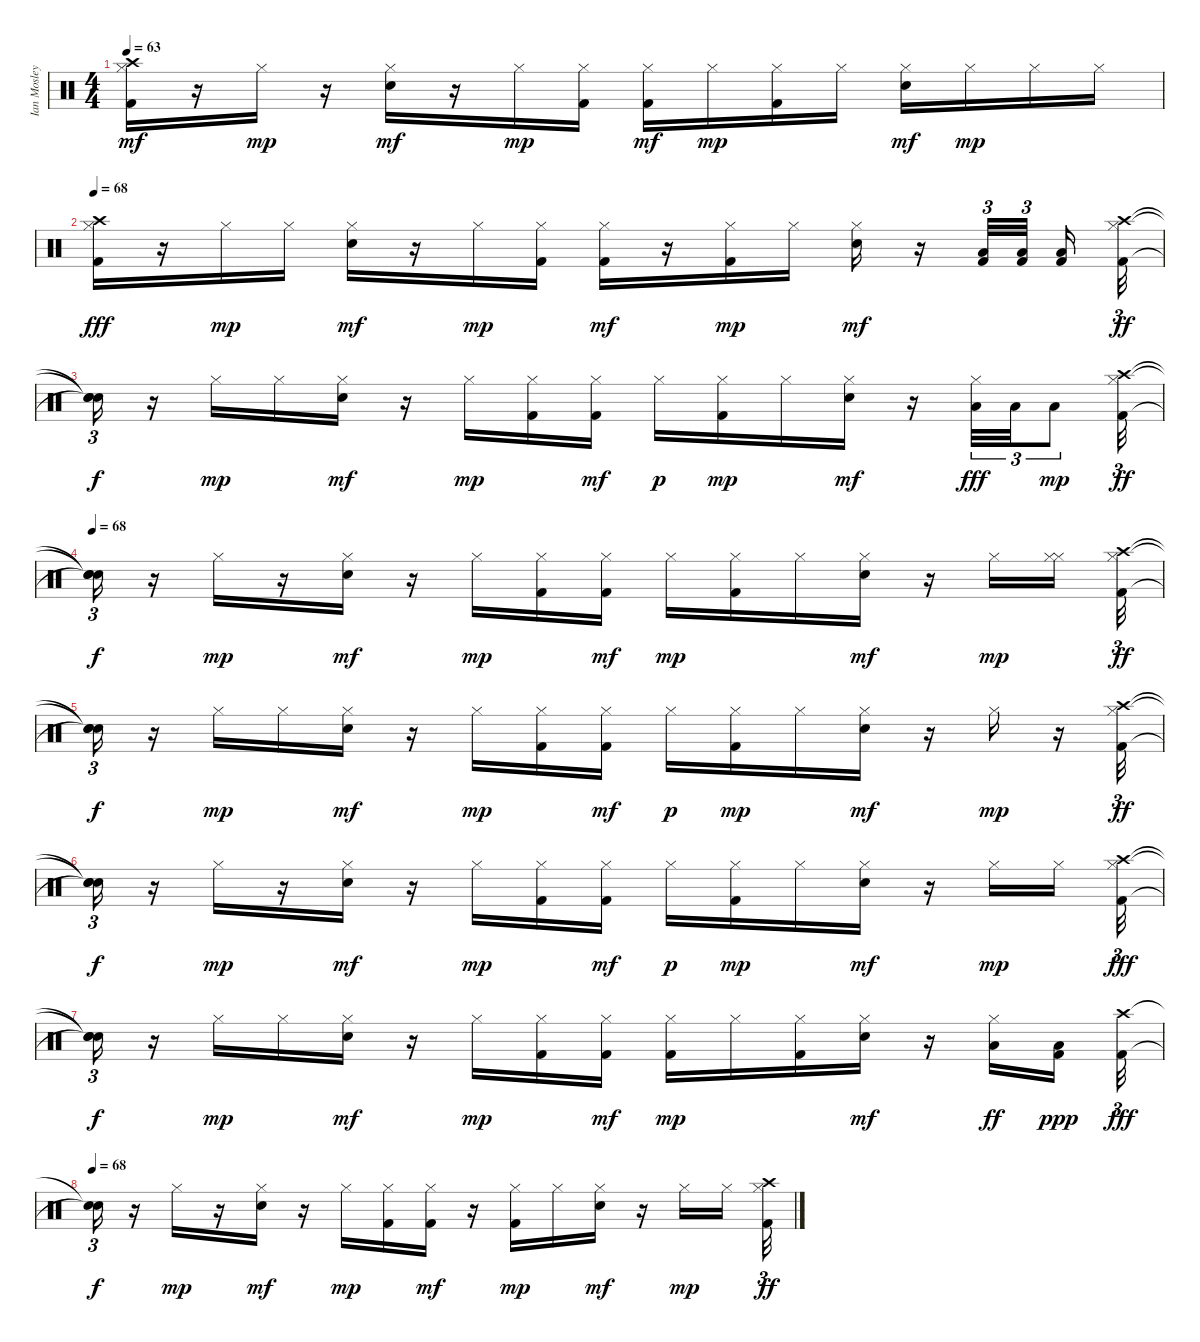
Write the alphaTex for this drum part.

\track ("Ian Mosley" "Ian Mosley") {instrument percussion}
\staff {score}
\articulation defaults
\ts (4 4)
\tempo 63
\clef neutral
\ks c
("Kick (hit) 2" "Hi-Hat (closed)" "Crash high (hit)").16{dy mf} r.16 "Hi-Hat (closed)".16{dy mp} r.16 ("Snare (hit) 2" "Hi-Hat (closed)").16{dy mf} r.16 "Hi-Hat (closed)".16{dy mp} ("Kick (hit) 2" "Hi-Hat (closed)").16 ("Kick (hit) 2" "Hi-Hat (closed)").16{dy mf} "Hi-Hat (closed)".16{dy mp} ("Kick (hit) 2" "Hi-Hat (closed)").16 "Hi-Hat (closed)".16 ("Snare (hit) 2" "Hi-Hat (closed)").16{dy mf} "Hi-Hat (closed)".16{dy mp} "Hi-Hat (closed)".16 "Hi-Hat (closed)".16 |
\tempo 68
("Kick (hit) 2" "Hi-Hat (closed)" "Crash high (hit)").16{dy fff} r.16 "Hi-Hat (closed)".16{dy mp} "Hi-Hat (closed)".16 ("Snare (hit) 2" "Hi-Hat (closed)").16{dy mf} r.16 "Hi-Hat (closed)".16{dy mp} ("Kick (hit) 2" "Hi-Hat (closed)").16 ("Kick (hit) 2" "Hi-Hat (closed)").16{dy mf} r.16 ("Kick (hit) 2" "Hi-Hat (closed)").16{dy mp} "Hi-Hat (closed)".16 ("Snare (hit) 2" "Hi-Hat (closed)").16{dy mf} r.16 ("Kick (hit) 2" "Low Tom (hit)").32{tu (3 2)} ("Kick (hit) 2" "Low Floor Tom (hit)").32{tu (3 2) beam splitsecondary} ("Kick (hit) 2" "Low Floor Tom (hit)").16 ("Kick (hit) 2" "Hi-Hat (closed)" "Crash high (hit)").32{tu (3 2) dy ff} |
("Snare (hit)"{t} "Snare (hit)"{t} "Snare (hit)"{t}).16{tu (3 2) dy f} r.16 "Hi-Hat (closed)".16{dy mp} "Hi-Hat (closed)".16 ("Snare (hit) 2" "Hi-Hat (closed)").16{dy mf} r.16 "Hi-Hat (closed)".16{dy mp} ("Kick (hit) 2" "Hi-Hat (closed)").16 ("Kick (hit) 2" "Hi-Hat (closed)").16{dy mf} "Hi-Hat (closed)".16{dy p} ("Kick (hit) 2" "Hi-Hat (closed)").16{dy mp} "Hi-Hat (closed)".16 ("Snare (hit) 2" "Hi-Hat (closed)").16{dy mf} r.16 ("Hi-Hat (closed)" "Low Tom (hit)").32{tu (3 2) dy fff} "Low Floor Tom (hit)".32{tu (3 2)} "Low Floor Tom (hit)".8{tu (3 2) dy mp} ("Kick (hit) 2" "Hi-Hat (closed)" "Crash high (hit)").32{tu (3 2) dy ff} |
\tempo 68
("Snare (hit)"{t} "Snare (hit)"{t} "Snare (hit)"{t}).16{tu (3 2) dy f} r.16 "Hi-Hat (closed)".16{dy mp} r.16 ("Snare (hit) 2" "Hi-Hat (closed)").16{dy mf} r.16 "Hi-Hat (closed)".16{dy mp} ("Kick (hit) 2" "Hi-Hat (closed)").16 ("Kick (hit) 2" "Hi-Hat (closed)").16{dy mf} "Hi-Hat (closed)".16{dy mp} ("Kick (hit) 2" "Hi-Hat (closed)").16 "Hi-Hat (closed)".16 ("Snare (hit) 2" "Hi-Hat (closed)").16{dy mf} r.16 "Hi-Hat (closed)".16{dy mp} ("Hi-Hat (closed)" "Hi-Hat (closed)").16{beam splitsecondary} ("Kick (hit) 2" "Hi-Hat (closed)" "Crash high (hit)").32{tu (3 2) dy ff} |
("Snare (hit)"{t} "Snare (hit)"{t} "Snare (hit)"{t}).16{tu (3 2) dy f} r.16 "Hi-Hat (closed)".16{dy mp} "Hi-Hat (closed)".16 ("Snare (hit) 2" "Hi-Hat (closed)").16{dy mf} r.16 "Hi-Hat (closed)".16{dy mp} ("Kick (hit) 2" "Hi-Hat (closed)").16 ("Kick (hit) 2" "Hi-Hat (closed)").16{dy mf} "Hi-Hat (closed)".16{dy p} ("Kick (hit) 2" "Hi-Hat (closed)").16{dy mp} "Hi-Hat (closed)".16 ("Snare (hit) 2" "Hi-Hat (closed)").16{dy mf} r.16 "Hi-Hat (closed)".16{dy mp} r.16 ("Kick (hit) 2" "Hi-Hat (closed)" "Crash high (hit)").32{tu (3 2) dy ff} |
("Snare (hit)"{t} "Snare (hit)"{t} "Snare (hit)"{t}).16{tu (3 2) dy f} r.16 "Hi-Hat (closed)".16{dy mp} r.16 ("Snare (hit) 2" "Hi-Hat (closed)").16{dy mf} r.16 "Hi-Hat (closed)".16{dy mp} ("Kick (hit) 2" "Hi-Hat (closed)").16 ("Kick (hit) 2" "Hi-Hat (closed)").16{dy mf} "Hi-Hat (closed)".16{dy p} ("Kick (hit) 2" "Hi-Hat (closed)").16{dy mp} "Hi-Hat (closed)".16 ("Snare (hit) 2" "Hi-Hat (closed)").16{dy mf} r.16 "Hi-Hat (closed)".16{dy mp} "Hi-Hat (closed)".16{beam splitsecondary} ("Kick (hit) 2" "Hi-Hat (closed)" "Crash high (hit)").32{tu (3 2) dy fff} |
("Snare (hit)"{t} "Snare (hit)"{t} "Snare (hit)"{t}).16{tu (3 2) dy f} r.16 "Hi-Hat (closed)".16{dy mp} "Hi-Hat (closed)".16 ("Snare (hit) 2" "Hi-Hat (closed)").16{dy mf} r.16 "Hi-Hat (closed)".16{dy mp} ("Kick (hit) 2" "Hi-Hat (closed)").16 ("Kick (hit) 2" "Hi-Hat (closed)").16{dy mf} ("Kick (hit) 2" "Hi-Hat (closed)").16{dy mp} "Hi-Hat (closed)".16 ("Kick (hit) 2" "Hi-Hat (closed)").16 ("Snare (hit) 2" "Hi-Hat (closed)").16{dy mf} r.16 ("Hi-Hat (closed)" "Low Tom (hit)").16{dy ff} ("Low Floor Tom (hit)" "Kick (hit) 2").16{dy ppp beam splitsecondary} ("Kick (hit) 2" "Crash high (hit)").32{tu (3 2) dy fff} |
\tempo 68
("Snare (hit)"{t} "Snare (hit)"{t}).16{tu (3 2) dy f} r.16 "Hi-Hat (closed)".16{dy mp} r.16 ("Snare (hit) 2" "Hi-Hat (closed)").16{dy mf} r.16 "Hi-Hat (closed)".16{dy mp} ("Kick (hit) 2" "Hi-Hat (closed)").16 ("Kick (hit) 2" "Hi-Hat (closed)").16{dy mf} r.16 ("Kick (hit) 2" "Hi-Hat (closed)").16{dy mp} "Hi-Hat (closed)".16 ("Snare (hit) 2" "Hi-Hat (closed)").16{dy mf} r.16 "Hi-Hat (closed)".16{dy mp} "Hi-Hat (closed)".16{beam splitsecondary} ("Hi-Hat (closed)" "Kick (hit) 2" "Crash high (hit)").32{tu (3 2) dy ff}
